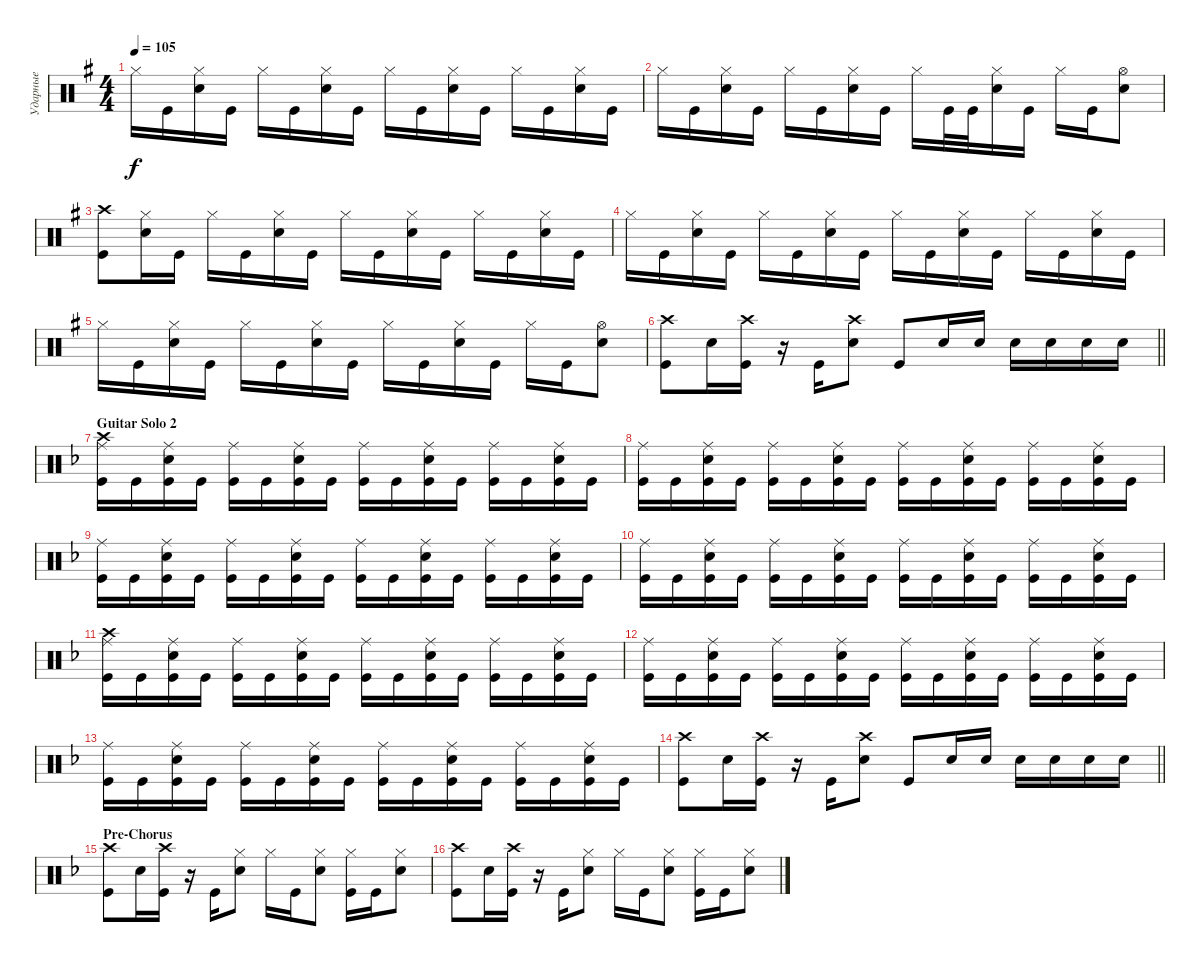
\track ("Ударные" "Ударные") {instrument percussion}
\staff {score}
\articulation defaults
\ts (4 4)
\tempo 105
\clef neutral
\ks eminor "Hi-Hat (closed)".16{dy f} "Kick (hit)".16
("Snare (hit) 2" "Hi-Hat (closed)").16 "Kick (hit)".16 "Hi-Hat (closed)".16 "Kick (hit)".16 ("Snare (hit) 2" "Hi-Hat (closed)").16 "Kick (hit)".16 "Hi-Hat (closed)".16 "Kick (hit)".16 ("Snare (hit) 2" "Hi-Hat (closed)").16 "Kick (hit)".16 "Hi-Hat (closed)".16 "Kick (hit)".16 ("Snare (hit) 2" "Hi-Hat (closed)").16 "Kick (hit)".16 |
"Hi-Hat (closed)".16 "Kick (hit)".16 ("Snare (hit) 2" "Hi-Hat (closed)").16 "Kick (hit)".16 "Hi-Hat (closed)".16 "Kick (hit)".16 ("Snare (hit) 2" "Hi-Hat (closed)").16 "Kick (hit)".16 "Hi-Hat (closed)".16 "Kick (hit)".32 "Kick (hit)".32 ("Snare (hit) 2" "Hi-Hat (closed)").16 "Kick (hit)".16 "Hi-Hat (closed)".16 "Kick (hit)".16 ("Snare (hit) 2" "Hi-Hat (open)").8 |
("Kick (hit)" "Crash high (hit)").8 ("Snare (hit) 2" "Hi-Hat (closed)").16 "Kick (hit)".16 "Hi-Hat (closed)".16 "Kick (hit)".16 ("Snare (hit) 2" "Hi-Hat (closed)").16 "Kick (hit)".16 "Hi-Hat (closed)".16 "Kick (hit)".16 ("Snare (hit) 2" "Hi-Hat (closed)").16 "Kick (hit)".16 "Hi-Hat (closed)".16 "Kick (hit)".16 ("Snare (hit) 2" "Hi-Hat (closed)").16 "Kick (hit)".16 |
"Hi-Hat (closed)".16 "Kick (hit)".16 ("Snare (hit) 2" "Hi-Hat (closed)").16 "Kick (hit)".16 "Hi-Hat (closed)".16 "Kick (hit)".16 ("Snare (hit) 2" "Hi-Hat (closed)").16 "Kick (hit)".16 "Hi-Hat (closed)".16 "Kick (hit)".16 ("Snare (hit) 2" "Hi-Hat (closed)").16 "Kick (hit)".16 "Hi-Hat (closed)".16 "Kick (hit)".16 ("Snare (hit) 2" "Hi-Hat (closed)").16 "Kick (hit)".16 |
"Hi-Hat (closed)".16 "Kick (hit)".16 ("Snare (hit) 2" "Hi-Hat (closed)").16 "Kick (hit)".16 "Hi-Hat (closed)".16 "Kick (hit)".16 ("Snare (hit) 2" "Hi-Hat (closed)").16 "Kick (hit)".16 "Hi-Hat (closed)".16 "Kick (hit)".16 ("Snare (hit) 2" "Hi-Hat (closed)").16 "Kick (hit)".16 "Hi-Hat (closed)".16 "Kick (hit)".16 ("Snare (hit) 2" "Hi-Hat (open)").8 |
\barLineRight lightlight
("Kick (hit)" "Crash high (hit)").8 "Snare (hit) 2".16 ("Kick (hit)" "Crash high (hit)").16 r.16 "Kick (hit)".16 ("Snare (hit) 2" "Crash high (hit)").8 "Kick (hit)".8 "Snare (hit) 2".16 "Snare (hit) 2".16 "Snare (hit) 2".16 "Snare (hit) 2".16 "Snare (hit) 2".16 "Snare (hit) 2".16 |
\section ("" "Guitar Solo 2")
\ks dminor
("Kick (hit)" "Crash high (hit)" "Ride (middle)").16 "Kick (hit)".16 ("Kick (hit)" "Snare (hit) 2" "Ride (middle)").16 "Kick (hit)".16 ("Kick (hit)" "Ride (middle)").16 "Kick (hit)".16 ("Kick (hit)" "Snare (hit) 2" "Ride (middle)").16 "Kick (hit)".16 ("Kick (hit)" "Ride (middle)").16 "Kick (hit)".16 ("Kick (hit)" "Snare (hit) 2" "Ride (middle)").16 "Kick (hit)".16 ("Kick (hit)" "Ride (middle)").16 "Kick (hit)".16 ("Kick (hit)" "Snare (hit) 2" "Ride (middle)").16 "Kick (hit)".16 |
("Kick (hit)" "Ride (middle)").16 "Kick (hit)".16 ("Kick (hit)" "Snare (hit) 2" "Ride (middle)").16 "Kick (hit)".16 ("Kick (hit)" "Ride (middle)").16 "Kick (hit)".16 ("Kick (hit)" "Snare (hit) 2" "Ride (middle)").16 "Kick (hit)".16 ("Kick (hit)" "Ride (middle)").16 "Kick (hit)".16 ("Kick (hit)" "Snare (hit) 2" "Ride (middle)").16 "Kick (hit)".16 ("Kick (hit)" "Ride (middle)").16 "Kick (hit)".16 ("Kick (hit)" "Snare (hit) 2" "Ride (middle)").16 "Kick (hit)".16 |
("Kick (hit)" "Ride (middle)").16 "Kick (hit)".16 ("Kick (hit)" "Snare (hit) 2" "Ride (middle)").16 "Kick (hit)".16 ("Kick (hit)" "Ride (middle)").16 "Kick (hit)".16 ("Kick (hit)" "Snare (hit) 2" "Ride (middle)").16 "Kick (hit)".16 ("Kick (hit)" "Ride (middle)").16 "Kick (hit)".16 ("Kick (hit)" "Snare (hit) 2" "Ride (middle)").16 "Kick (hit)".16 ("Kick (hit)" "Ride (middle)").16 "Kick (hit)".16 ("Kick (hit)" "Snare (hit) 2" "Ride (middle)").16 "Kick (hit)".16 |
("Kick (hit)" "Ride (middle)").16 "Kick (hit)".16 ("Kick (hit)" "Snare (hit) 2" "Ride (middle)").16 "Kick (hit)".16 ("Kick (hit)" "Ride (middle)").16 "Kick (hit)".16 ("Kick (hit)" "Snare (hit) 2" "Ride (middle)").16 "Kick (hit)".16 ("Kick (hit)" "Ride (middle)").16 "Kick (hit)".16 ("Kick (hit)" "Snare (hit) 2" "Ride (middle)").16 "Kick (hit)".16 ("Kick (hit)" "Ride (middle)").16 "Kick (hit)".16 ("Kick (hit)" "Snare (hit) 2" "Ride (middle)").16 "Kick (hit)".16 |
("Kick (hit)" "Crash high (hit)" "Ride (middle)").16 "Kick (hit)".16 ("Kick (hit)" "Snare (hit) 2" "Ride (middle)").16 "Kick (hit)".16 ("Kick (hit)" "Ride (middle)").16 "Kick (hit)".16 ("Kick (hit)" "Snare (hit) 2" "Ride (middle)").16 "Kick (hit)".16 ("Kick (hit)" "Ride (middle)").16 "Kick (hit)".16 ("Kick (hit)" "Snare (hit) 2" "Ride (middle)").16 "Kick (hit)".16 ("Kick (hit)" "Ride (middle)").16 "Kick (hit)".16 ("Kick (hit)" "Snare (hit) 2" "Ride (middle)").16 "Kick (hit)".16 |
("Kick (hit)" "Ride (middle)").16 "Kick (hit)".16 ("Kick (hit)" "Snare (hit) 2" "Ride (middle)").16 "Kick (hit)".16 ("Kick (hit)" "Ride (middle)").16 "Kick (hit)".16 ("Kick (hit)" "Snare (hit) 2" "Ride (middle)").16 "Kick (hit)".16 ("Kick (hit)" "Ride (middle)").16 "Kick (hit)".16 ("Kick (hit)" "Snare (hit) 2" "Ride (middle)").16 "Kick (hit)".16 ("Kick (hit)" "Ride (middle)").16 "Kick (hit)".16 ("Kick (hit)" "Snare (hit) 2" "Ride (middle)").16 "Kick (hit)".16 |
("Kick (hit)" "Ride (middle)").16 "Kick (hit)".16 ("Kick (hit)" "Snare (hit) 2" "Ride (middle)").16 "Kick (hit)".16 ("Kick (hit)" "Ride (middle)").16 "Kick (hit)".16 ("Kick (hit)" "Snare (hit) 2" "Ride (middle)").16 "Kick (hit)".16 ("Kick (hit)" "Ride (middle)").16 "Kick (hit)".16 ("Kick (hit)" "Snare (hit) 2" "Ride (middle)").16 "Kick (hit)".16 ("Kick (hit)" "Ride (middle)").16 "Kick (hit)".16 ("Kick (hit)" "Snare (hit) 2" "Ride (middle)").16 "Kick (hit)".16 |
\barLineRight lightlight
("Kick (hit)" "Crash high (hit)").8 "Snare (hit) 2".16 ("Kick (hit)" "Crash high (hit)").16 r.16 "Kick (hit)".16 ("Snare (hit) 2" "Crash high (hit)").8 "Kick (hit)".8 "Snare (hit) 2".16 "Snare (hit) 2".16 "Snare (hit) 2".16 "Snare (hit) 2".16 "Snare (hit) 2".16 "Snare (hit) 2".16 |
\section ("" "Pre-Chorus")
("Kick (hit)" "Crash high (hit)").8 "Snare (hit) 2".16 ("Kick (hit)" "Crash high (hit)").16 r.16 "Kick (hit)".16 ("Snare (hit) 2" "Hi-Hat (closed)").8 "Hi-Hat (closed)".16 "Kick (hit)".16 ("Snare (hit) 2" "Hi-Hat (closed)").8 ("Kick (hit)" "Hi-Hat (closed)").16 "Kick (hit)".16 ("Snare (hit) 2" "Hi-Hat (closed)").8 |
("Kick (hit)" "Crash high (hit)").8 "Snare (hit) 2".16 ("Kick (hit)" "Crash high (hit)").16 r.16 "Kick (hit)".16 ("Snare (hit) 2" "Hi-Hat (closed)").8 "Hi-Hat (closed)".16 "Kick (hit)".16 ("Snare (hit) 2" "Hi-Hat (closed)").8 ("Kick (hit)" "Hi-Hat (closed)").16 "Kick (hit)".16 ("Snare (hit) 2" "Hi-Hat (closed)").8
